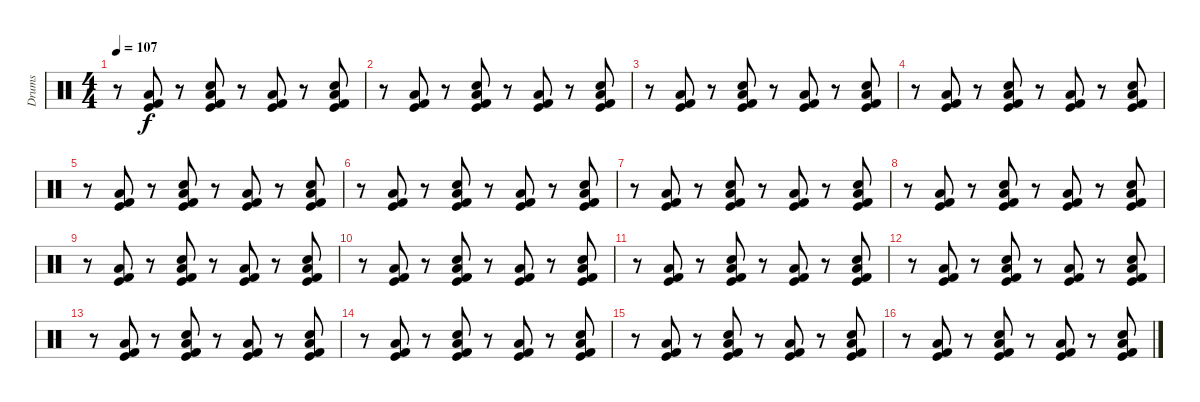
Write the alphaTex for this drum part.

\track ("Drums" "Drums") {instrument percussion}
\staff {score}
\articulation defaults
\ts (4 4)
\tempo 107
\clef neutral
\ks c
r.8{dy f volume 8} ("Kick (hit)" "Low Floor Tom (hit)" "Kick (hit) 2").8 r.8 ("Electric Snare (hit)" "Kick (hit)" "Low Floor Tom (hit)" "Kick (hit) 2").8 r.8 ("Kick (hit)" "Low Floor Tom (hit)" "Kick (hit) 2").8 r.8 ("Electric Snare (hit)" "Kick (hit)" "Low Floor Tom (hit)" "Kick (hit) 2").8 |
r.8 ("Kick (hit)" "Low Floor Tom (hit)" "Kick (hit) 2").8 r.8 ("Electric Snare (hit)" "Kick (hit)" "Low Floor Tom (hit)" "Kick (hit) 2").8 r.8 ("Kick (hit)" "Low Floor Tom (hit)" "Kick (hit) 2").8 r.8 ("Electric Snare (hit)" "Kick (hit)" "Low Floor Tom (hit)" "Kick (hit) 2").8 |
r.8 ("Kick (hit)" "Low Floor Tom (hit)" "Kick (hit) 2").8 r.8 ("Electric Snare (hit)" "Kick (hit)" "Low Floor Tom (hit)" "Kick (hit) 2").8 r.8 ("Kick (hit)" "Low Floor Tom (hit)" "Kick (hit) 2").8 r.8 ("Electric Snare (hit)" "Kick (hit)" "Low Floor Tom (hit)" "Kick (hit) 2").8 |
r.8 ("Kick (hit)" "Low Floor Tom (hit)" "Kick (hit) 2").8 r.8 ("Electric Snare (hit)" "Kick (hit)" "Low Floor Tom (hit)" "Kick (hit) 2").8 r.8 ("Kick (hit)" "Low Floor Tom (hit)" "Kick (hit) 2").8 r.8 ("Electric Snare (hit)" "Kick (hit)" "Low Floor Tom (hit)" "Kick (hit) 2").8 |
r.8{volume 16} ("Kick (hit)" "Low Floor Tom (hit)" "Kick (hit) 2").8 r.8 ("Electric Snare (hit)" "Kick (hit)" "Low Floor Tom (hit)" "Kick (hit) 2").8 r.8 ("Kick (hit)" "Low Floor Tom (hit)" "Kick (hit) 2").8 r.8 ("Electric Snare (hit)" "Kick (hit)" "Low Floor Tom (hit)" "Kick (hit) 2").8 |
r.8 ("Kick (hit)" "Low Floor Tom (hit)" "Kick (hit) 2").8 r.8 ("Electric Snare (hit)" "Kick (hit)" "Low Floor Tom (hit)" "Kick (hit) 2").8 r.8 ("Kick (hit)" "Low Floor Tom (hit)" "Kick (hit) 2").8 r.8 ("Electric Snare (hit)" "Kick (hit)" "Low Floor Tom (hit)" "Kick (hit) 2").8 |
r.8 ("Kick (hit)" "Low Floor Tom (hit)" "Kick (hit) 2").8 r.8 ("Electric Snare (hit)" "Kick (hit)" "Low Floor Tom (hit)" "Kick (hit) 2").8 r.8 ("Kick (hit)" "Low Floor Tom (hit)" "Kick (hit) 2").8 r.8 ("Electric Snare (hit)" "Kick (hit)" "Low Floor Tom (hit)" "Kick (hit) 2").8 |
r.8 ("Kick (hit)" "Low Floor Tom (hit)" "Kick (hit) 2").8 r.8 ("Electric Snare (hit)" "Kick (hit)" "Low Floor Tom (hit)" "Kick (hit) 2").8 r.8 ("Kick (hit)" "Low Floor Tom (hit)" "Kick (hit) 2").8 r.8 ("Electric Snare (hit)" "Kick (hit)" "Low Floor Tom (hit)" "Kick (hit) 2").8 |
r.8 ("Kick (hit)" "Low Floor Tom (hit)" "Kick (hit) 2").8 r.8 ("Electric Snare (hit)" "Kick (hit)" "Low Floor Tom (hit)" "Kick (hit) 2").8 r.8 ("Kick (hit)" "Low Floor Tom (hit)" "Kick (hit) 2").8 r.8 ("Electric Snare (hit)" "Kick (hit)" "Low Floor Tom (hit)" "Kick (hit) 2").8 |
r.8 ("Kick (hit)" "Low Floor Tom (hit)" "Kick (hit) 2").8 r.8 ("Electric Snare (hit)" "Kick (hit)" "Low Floor Tom (hit)" "Kick (hit) 2").8 r.8 ("Kick (hit)" "Low Floor Tom (hit)" "Kick (hit) 2").8 r.8 ("Electric Snare (hit)" "Kick (hit)" "Low Floor Tom (hit)" "Kick (hit) 2").8 |
r.8 ("Kick (hit)" "Low Floor Tom (hit)" "Kick (hit) 2").8 r.8 ("Electric Snare (hit)" "Kick (hit)" "Low Floor Tom (hit)" "Kick (hit) 2").8 r.8 ("Kick (hit)" "Low Floor Tom (hit)" "Kick (hit) 2").8 r.8 ("Electric Snare (hit)" "Kick (hit)" "Low Floor Tom (hit)" "Kick (hit) 2").8 |
r.8 ("Kick (hit)" "Low Floor Tom (hit)" "Kick (hit) 2").8 r.8 ("Electric Snare (hit)" "Kick (hit)" "Low Floor Tom (hit)" "Kick (hit) 2").8 r.8 ("Kick (hit)" "Low Floor Tom (hit)" "Kick (hit) 2").8 r.8 ("Electric Snare (hit)" "Kick (hit)" "Low Floor Tom (hit)" "Kick (hit) 2").8 |
r.8 ("Kick (hit)" "Low Floor Tom (hit)" "Kick (hit) 2").8 r.8 ("Electric Snare (hit)" "Kick (hit)" "Low Floor Tom (hit)" "Kick (hit) 2").8 r.8 ("Kick (hit)" "Low Floor Tom (hit)" "Kick (hit) 2").8 r.8 ("Electric Snare (hit)" "Kick (hit)" "Low Floor Tom (hit)" "Kick (hit) 2").8 |
r.8 ("Kick (hit)" "Low Floor Tom (hit)" "Kick (hit) 2").8 r.8 ("Electric Snare (hit)" "Kick (hit)" "Low Floor Tom (hit)" "Kick (hit) 2").8 r.8 ("Kick (hit)" "Low Floor Tom (hit)" "Kick (hit) 2").8 r.8 ("Electric Snare (hit)" "Kick (hit)" "Low Floor Tom (hit)" "Kick (hit) 2").8 |
r.8 ("Kick (hit)" "Low Floor Tom (hit)" "Kick (hit) 2").8 r.8 ("Electric Snare (hit)" "Kick (hit)" "Low Floor Tom (hit)" "Kick (hit) 2").8 r.8 ("Kick (hit)" "Low Floor Tom (hit)" "Kick (hit) 2").8 r.8 ("Electric Snare (hit)" "Kick (hit)" "Low Floor Tom (hit)" "Kick (hit) 2").8 |
r.8 ("Kick (hit)" "Low Floor Tom (hit)" "Kick (hit) 2").8 r.8 ("Electric Snare (hit)" "Kick (hit)" "Low Floor Tom (hit)" "Kick (hit) 2").8 r.8 ("Kick (hit)" "Low Floor Tom (hit)" "Kick (hit) 2").8 r.8 ("Electric Snare (hit)" "Kick (hit)" "Low Floor Tom (hit)" "Kick (hit) 2").8
